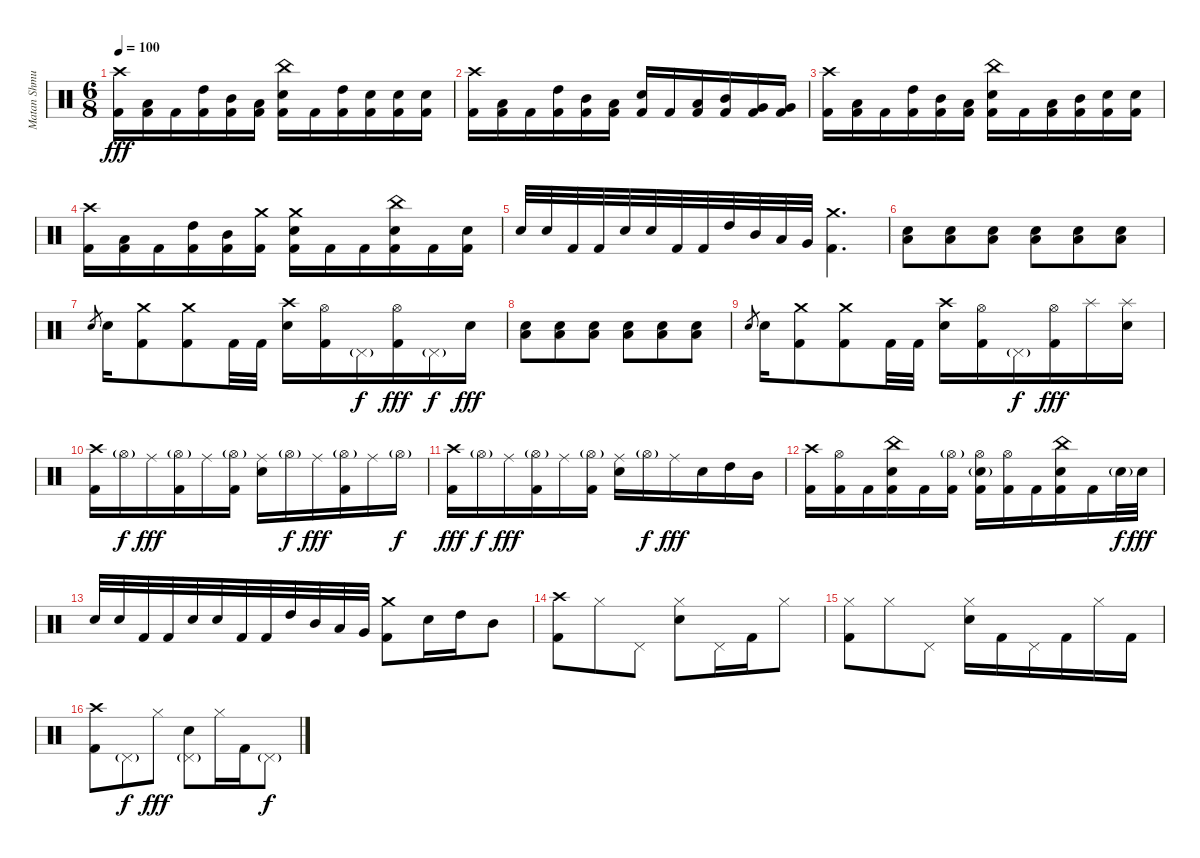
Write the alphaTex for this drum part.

\track ("Matan Shmuely" "Matan Shmu") {instrument percussion}
\staff {score}
\articulation defaults
\ts (6 8)
\tempo 100
\clef neutral
\ks c
("Kick (hit) 2" "Crash high (hit)").16{dy fff} ("Kick (hit) 2" "Low Tom (hit)").16 "Kick (hit) 2".16 ("Kick (hit) 2" "High Tom (hit)").16 ("Kick (hit) 2" "Mid Tom (hit)").16 ("Kick (hit) 2" "Low Tom (hit)").16 ("Kick (hit) 2" "Electric Snare (hit)" "China (hit)").16 "Kick (hit) 2".16 ("Kick (hit) 2" "High Tom (hit)").16 ("Kick (hit) 2" "Electric Snare (hit)").16 ("Kick (hit) 2" "Electric Snare (hit)").16 ("Kick (hit) 2" "Electric Snare (hit)").16 |
("Kick (hit) 2" "Crash high (hit)").16 ("Kick (hit) 2" "Low Tom (hit)").16 "Kick (hit) 2".16 ("Kick (hit) 2" "High Tom (hit)").16 ("Kick (hit) 2" "Mid Tom (hit)").16 ("Kick (hit) 2" "Low Tom (hit)").16 ("Kick (hit) 2" "Electric Snare (hit)").16 "Kick (hit) 2".16 ("Kick (hit) 2" "Low Tom (hit)").16 ("Kick (hit) 2" "Mid Tom (hit)").16 ("Kick (hit) 2" "Very Low Tom (hit)").16 ("Kick (hit) 2" "Very Low Tom (hit)").16 |
("Kick (hit) 2" "Crash high (hit)").16 ("Kick (hit) 2" "Low Tom (hit)").16 "Kick (hit) 2".16 ("Kick (hit) 2" "High Tom (hit)").16 ("Kick (hit) 2" "Mid Tom (hit)").16 ("Kick (hit) 2" "Low Tom (hit)").16 ("Kick (hit) 2" "Electric Snare (hit)" "China (hit)").16 "Kick (hit) 2".16 ("Kick (hit) 2" "Low Tom (hit)").16 ("Kick (hit) 2" "Mid Tom (hit)").16 ("Kick (hit) 2" "Electric Snare (hit)").16 ("Kick (hit) 2" "Electric Snare (hit)").16 |
("Kick (hit) 2" "Crash high (hit)").16 ("Kick (hit) 2" "Low Tom (hit)").16 "Kick (hit) 2".16 ("Kick (hit) 2" "High Tom (hit)").16 ("Kick (hit) 2" "Mid Tom (hit)").16 ("Kick (hit) 2" "Crash medium (hit)").16 ("Kick (hit) 2" "Electric Snare (hit)" "Crash medium (hit)").16 "Kick (hit) 2".16 "Kick (hit) 2".16 ("Kick (hit) 2" "Electric Snare (hit)" "China (hit)").16 "Kick (hit) 2".16 ("Kick (hit) 2" "Electric Snare (hit)").16 |
"Electric Snare (hit)".32 "Electric Snare (hit)".32 "Kick (hit) 2".32 "Kick (hit) 2".32 "Electric Snare (hit)".32 "Electric Snare (hit)".32 "Kick (hit) 2".32 "Kick (hit) 2".32 "High Tom (hit)".32 "Mid Tom (hit)".32 "Low Tom (hit)".32 "Very Low Tom (hit)".32 ("Kick (hit) 2" "Crash medium (hit)").4{d} |
("Low Tom (hit)" "Electric Snare (hit)").8 ("Low Tom (hit)" "Electric Snare (hit)").8 ("Low Tom (hit)" "Electric Snare (hit)").8 ("Low Floor Tom (hit)" "Electric Snare (hit)").8 ("Low Floor Tom (hit)" "Electric Snare (hit)").8 ("Low Floor Tom (hit)" "Electric Snare (hit)").8 |
"Electric Snare (hit)".8{gr} "Electric Snare (hit)".16 ("Kick (hit) 2" "Crash medium (hit)").8 ("Kick (hit) 2" "Crash medium (hit)").8 "Kick (hit) 2".32 "Kick (hit) 2".32 ("Electric Snare (hit)" "Crash high (hit)").16 ("Kick (hit) 2" "Hi-Hat (open)").16 "Pedal Hi-Hat (hit)"{g}.16{dy f} ("Kick (hit) 2" "Hi-Hat (open)").16{dy fff} "Pedal Hi-Hat (hit)"{g}.16{dy f} "Electric Snare (hit)".16{dy fff} |
("Low Tom (hit)" "Electric Snare (hit)").8 ("Low Tom (hit)" "Electric Snare (hit)").8 ("Low Tom (hit)" "Electric Snare (hit)").8 ("Low Floor Tom (hit)" "Electric Snare (hit)").8 ("Low Floor Tom (hit)" "Electric Snare (hit)").8 ("Low Floor Tom (hit)" "Electric Snare (hit)").8 |
"Electric Snare (hit)".8{gr} "Electric Snare (hit)".16 ("Kick (hit) 2" "Crash medium (hit)").8 ("Kick (hit) 2" "Crash medium (hit)").8 "Kick (hit) 2".32 "Kick (hit) 2".32 ("Electric Snare (hit)" "Crash high (hit)").16 ("Kick (hit) 2" "Hi-Hat (open)").16 "Pedal Hi-Hat (hit)"{g}.16{dy f} ("Kick (hit) 2" "Hi-Hat (open)").16{dy fff} "Splash (hit)".16 ("Electric Snare (hit)" "Splash (hit)").16 |
("Kick (hit) 2" "Crash high (hit)").16 "Hi-Hat (open)"{g}.16{dy f} "Ride (middle)".16{dy fff} ("Kick (hit) 2" "Hi-Hat (open)"{g}).16 "Ride (middle)".16 ("Kick (hit) 2" "Hi-Hat (open)"{g}).16 ("Electric Snare (hit)" "Ride (middle)").16 "Hi-Hat (open)"{g}.16{dy f} "Ride (middle)".16{dy fff} ("Kick (hit) 2" "Hi-Hat (open)"{g}).16 "Ride (middle)".16 "Hi-Hat (open)"{g}.16{dy f} |
("Kick (hit) 2" "Crash high (hit)").16{dy fff} "Hi-Hat (open)"{g}.16{dy f} "Ride (middle)".16{dy fff} ("Kick (hit) 2" "Hi-Hat (open)"{g}).16 "Ride (middle)".16 ("Kick (hit) 2" "Hi-Hat (open)"{g}).16 ("Electric Snare (hit)" "Ride (middle)").16 "Hi-Hat (open)"{g}.16{dy f} "Ride (middle)".16{dy fff} "Electric Snare (hit)".16 "High Tom (hit)".16 "Mid Tom (hit)".16 |
("Kick (hit) 2" "Crash high (hit)").16 ("Kick (hit) 2" "Hi-Hat (open)").16 "Kick (hit) 2".16 ("Kick (hit) 2" "Electric Snare (hit)" "China (hit)").16 "Kick (hit) 2".16 ("Kick (hit) 2" "Hi-Hat (open)"{g}).16 ("Kick (hit) 2" "Electric Snare (hit)"{g} "Hi-Hat (open)").16 ("Kick (hit) 2" "Hi-Hat (open)").16 "Kick (hit) 2".16 ("Kick (hit) 2" "Electric Snare (hit)" "China (hit)").16 "Kick (hit) 2".16 "Electric Snare (hit)"{g}.32{dy f} "Electric Snare (hit)".32{dy fff} |
"Electric Snare (hit)".32 "Electric Snare (hit)".32 "Kick (hit) 2".32 "Kick (hit) 2".32 "Electric Snare (hit)".32 "Electric Snare (hit)".32 "Kick (hit) 2".32 "Kick (hit) 2".32 "High Tom (hit)".32 "Mid Tom (hit)".32 "Low Tom (hit)".32 "Very Low Tom (hit)".32 ("Kick (hit) 2" "Crash medium (hit)").8 "Electric Snare (hit)".16 "High Tom (hit)".16 "Mid Tom (hit)".8 |
("Kick (hit) 2" "Crash high (hit)").8 "Hi-Hat (closed)".8 "Pedal Hi-Hat (hit)".8 ("Electric Snare (hit)" "Hi-Hat (closed)").8 "Pedal Hi-Hat (hit)".16 "Kick (hit) 2".16 "Hi-Hat (closed)".8 |
("Kick (hit) 2" "Hi-Hat (closed)").8 "Hi-Hat (closed)".8 "Pedal Hi-Hat (hit)".8 ("Electric Snare (hit)" "Hi-Hat (closed)").16 "Kick (hit) 2".16 "Pedal Hi-Hat (hit)".16 "Kick (hit) 2".16 "Hi-Hat (closed)".16 "Kick (hit) 2".16 |
("Kick (hit) 2" "Crash high (hit)").8 "Pedal Hi-Hat (hit)"{g}.8{dy f} "Hi-Hat (closed)".8{dy fff} ("Electric Snare (hit)" "Pedal Hi-Hat (hit)"{g}).8 "Hi-Hat (closed)".16 "Kick (hit) 2".16 "Pedal Hi-Hat (hit)"{g}.8{dy f}
